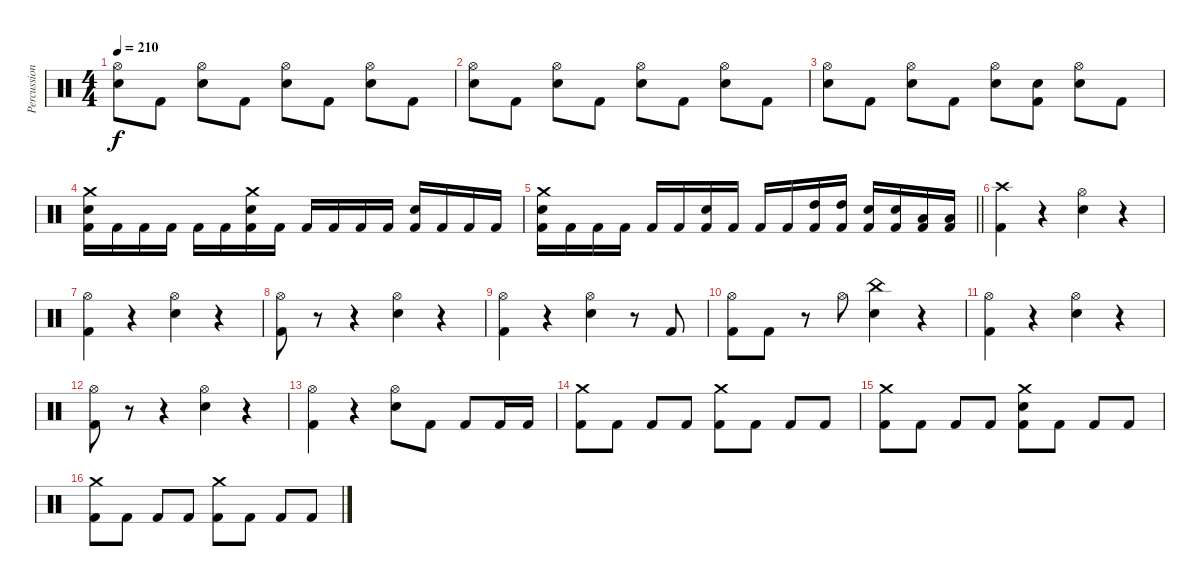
\track ("Percussion" "Percussion") {instrument percussion}
\staff {score}
\articulation defaults
\ts (4 4)
\tempo 210
\clef neutral
\ks c
("Hi-Hat (open)" "Electric Snare (hit)").8{dy f} "Kick (hit) 2".8 ("Hi-Hat (open)" "Electric Snare (hit)").8 "Kick (hit) 2".8 ("Hi-Hat (open)" "Electric Snare (hit)").8 "Kick (hit) 2".8 ("Hi-Hat (open)" "Electric Snare (hit)").8 "Kick (hit) 2".8 |
("Hi-Hat (open)" "Electric Snare (hit)").8 "Kick (hit) 2".8 ("Hi-Hat (open)" "Electric Snare (hit)").8 "Kick (hit) 2".8 ("Hi-Hat (open)" "Electric Snare (hit)").8 "Kick (hit) 2".8 ("Hi-Hat (open)" "Electric Snare (hit)").8 "Kick (hit) 2".8 |
("Hi-Hat (open)" "Electric Snare (hit)").8 "Kick (hit) 2".8 ("Hi-Hat (open)" "Electric Snare (hit)").8 "Kick (hit) 2".8 ("Hi-Hat (open)" "Electric Snare (hit)").8 ("Electric Snare (hit)" "Kick (hit) 2").8 ("Hi-Hat (open)" "Electric Snare (hit)").8 "Kick (hit) 2".8 |
("Crash medium (hit)" "Electric Snare (hit)" "Kick (hit) 2").16 "Kick (hit) 2".16 "Kick (hit) 2".16 "Kick (hit) 2".16 "Kick (hit) 2".16 "Kick (hit) 2".16 ("Crash medium (hit)" "Electric Snare (hit)" "Kick (hit) 2").16 "Kick (hit) 2".16 "Kick (hit) 2".16 "Kick (hit) 2".16 "Kick (hit) 2".16 "Kick (hit) 2".16 ("Electric Snare (hit)" "Kick (hit) 2").16 "Kick (hit) 2".16 "Kick (hit) 2".16 "Kick (hit) 2".16 |
\barLineRight lightlight
("Crash medium (hit)" "Electric Snare (hit)" "Kick (hit) 2").16 "Kick (hit) 2".16 "Kick (hit) 2".16 "Kick (hit) 2".16 "Kick (hit) 2".16 "Kick (hit) 2".16 ("Electric Snare (hit)" "Kick (hit) 2").16 "Kick (hit) 2".16 "Kick (hit) 2".16 "Kick (hit) 2".16 ("High Tom (hit)" "Kick (hit) 2").16 ("High Tom (hit)" "Kick (hit) 2").16 ("Electric Snare (hit)" "Kick (hit) 2").16 ("Electric Snare (hit)" "Kick (hit) 2").16 ("Low Tom (hit)" "Kick (hit) 2").16 ("Low Tom (hit)" "Kick (hit) 2").16 |
("Crash high (hit)" "Kick (hit) 2").4 r.4 ("Hi-Hat (open)" "Electric Snare (hit)").4 r.4 |
("Hi-Hat (open)" "Kick (hit) 2").4 r.4 ("Hi-Hat (open)" "Electric Snare (hit)").4 r.4 |
("Hi-Hat (open)" "Kick (hit) 2").8 r.8 r.4 ("Hi-Hat (open)" "Electric Snare (hit)").4 r.4 |
("Hi-Hat (open)" "Kick (hit) 2").4 r.4 ("Hi-Hat (open)" "Electric Snare (hit)").4 r.8 "Kick (hit) 2".8 |
("Hi-Hat (open)" "Kick (hit) 2").8 "Kick (hit) 2".8 r.8 "Hi-Hat (open)".8 ("China (hit)" "Electric Snare (hit)").4 r.4 |
("Hi-Hat (open)" "Kick (hit) 2").4 r.4 ("Hi-Hat (open)" "Electric Snare (hit)").4 r.4 |
("Hi-Hat (open)" "Kick (hit) 2").8 r.8 r.4 ("Hi-Hat (open)" "Electric Snare (hit)").4 r.4 |
("Hi-Hat (open)" "Kick (hit) 2").4 r.4 ("Hi-Hat (open)" "Electric Snare (hit)").8 "Kick (hit) 2".8 "Kick (hit) 2".8 "Kick (hit) 2".16 "Kick (hit) 2".16 |
("Crash medium (hit)" "Kick (hit) 2").8 "Kick (hit) 2".8 "Kick (hit) 2".8 "Kick (hit) 2".8 ("Crash medium (hit)" "Kick (hit) 2").8 "Kick (hit) 2".8 "Kick (hit) 2".8 "Kick (hit) 2".8 |
("Crash medium (hit)" "Kick (hit) 2").8 "Kick (hit) 2".8 "Kick (hit) 2".8 "Kick (hit) 2".8 ("Crash medium (hit)" "Electric Snare (hit)" "Kick (hit) 2").8 "Kick (hit) 2".8 "Kick (hit) 2".8 "Kick (hit) 2".8 |
("Crash medium (hit)" "Kick (hit) 2").8 "Kick (hit) 2".8 "Kick (hit) 2".8 "Kick (hit) 2".8 ("Crash medium (hit)" "Kick (hit) 2").8 "Kick (hit) 2".8 "Kick (hit) 2".8 "Kick (hit) 2".8
